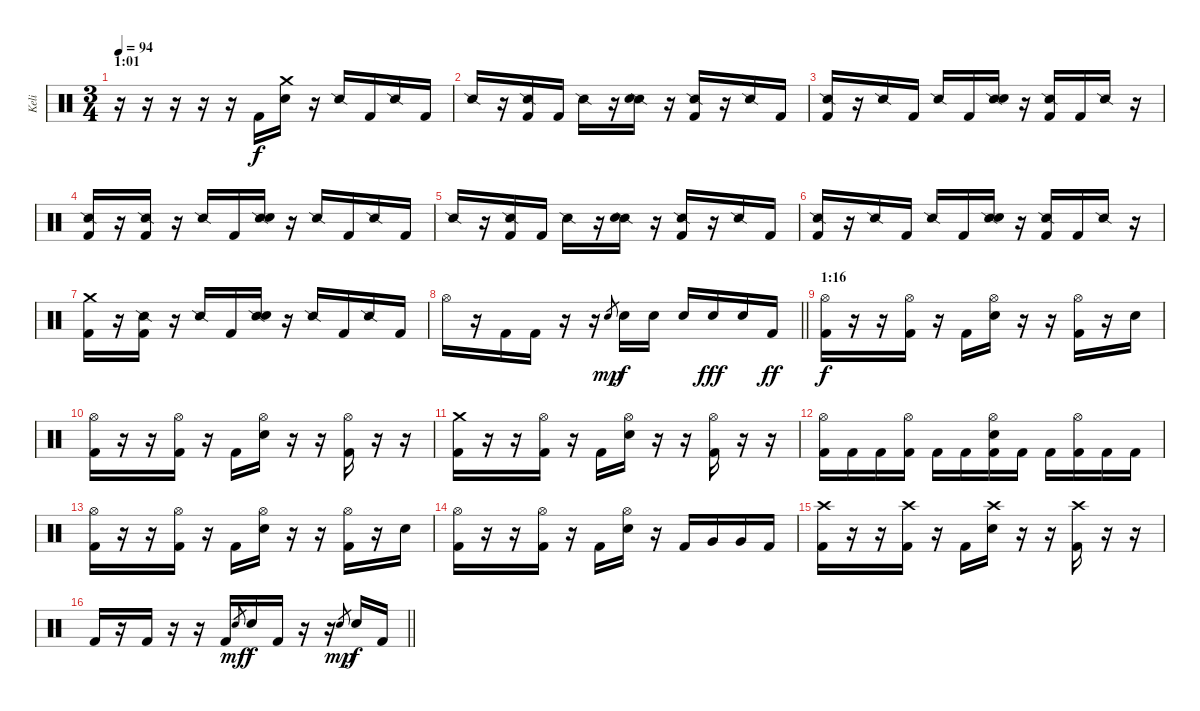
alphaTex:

\track ("Keli" "Keli") {instrument percussion}
\staff {score}
\articulation defaults
\ts (3 4)
\section ("" "1:01")
\tempo 94
\clef neutral
\ks c
r.16{dy f} r.16 r.16 r.16 r.16 "Kick (hit) 2".16 ("Crash medium (hit)" "Snare (hit) 2").16 r.16 "Snare (side stick) 2".16 "Kick (hit) 2".16 "Snare (side stick) 2".16 "Kick (hit) 2".16 |
"Snare (side stick) 2".16 r.16 ("Snare (side stick) 2" "Kick (hit) 2").16 "Kick (hit) 2".16 "Snare (side stick) 2".16 r.16 ("Snare (side stick) 2" "Snare (hit) 2").16 r.16 ("Snare (side stick) 2" "Kick (hit) 2").16 r.16 "Snare (side stick) 2".16 "Kick (hit) 2".16 |
("Snare (side stick) 2" "Kick (hit) 2").16 r.16 "Snare (side stick) 2".16 "Kick (hit) 2".16 "Snare (side stick) 2".16 "Kick (hit) 2".16 ("Snare (side stick) 2" "Snare (hit) 2").16 r.16 ("Snare (side stick) 2" "Kick (hit) 2").16 "Kick (hit) 2".16 "Snare (side stick) 2".16 r.16 |
("Snare (side stick) 2" "Kick (hit) 2").16 r.16 ("Snare (side stick) 2" "Kick (hit) 2").16 r.16 "Snare (side stick) 2".16 "Kick (hit) 2".16 ("Snare (side stick) 2" "Snare (hit) 2").16 r.16 "Snare (side stick) 2".16 "Kick (hit) 2".16 "Snare (side stick) 2".16 "Kick (hit) 2".16 |
"Snare (side stick) 2".16 r.16 ("Snare (side stick) 2" "Kick (hit) 2").16 "Kick (hit) 2".16 "Snare (side stick) 2".16 r.16 ("Snare (side stick) 2" "Snare (hit) 2").16 r.16 ("Snare (side stick) 2" "Kick (hit) 2").16 r.16 "Snare (side stick) 2".16 "Kick (hit) 2".16 |
("Snare (side stick) 2" "Kick (hit) 2").16 r.16 "Snare (side stick) 2".16 "Kick (hit) 2".16 "Snare (side stick) 2".16 "Kick (hit) 2".16 ("Snare (side stick) 2" "Snare (hit) 2").16 r.16 ("Snare (side stick) 2" "Kick (hit) 2").16 "Kick (hit) 2".16 "Snare (side stick) 2".16 r.16 |
("Crash medium (hit)" "Kick (hit) 2").16 r.16 ("Snare (side stick) 2" "Kick (hit) 2").16 r.16 "Snare (side stick) 2".16 "Kick (hit) 2".16 ("Snare (side stick) 2" "Snare (hit) 2").16 r.16 "Snare (side stick) 2".16 "Kick (hit) 2".16 "Snare (side stick) 2".16 "Kick (hit) 2".16 |
\barLineRight lightlight "Hi-Hat (open)".16
r.16 "Kick (hit) 2".16 "Kick (hit) 2".16 r.16 r.16 "Snare (hit) 2".8{gr dy mp} "Snare (hit) 2".16{dy f} "Snare (hit) 2".16 "Snare (hit) 2".16 "Snare (hit) 2".16{dy fff} "Snare (hit) 2".16 "Kick (hit) 2".16{dy ff} |
\section ("" "1:16")
("Hi-Hat (open)" "Kick (hit) 2").16{dy f} r.16 r.16 ("Hi-Hat (open)" "Kick (hit) 2").16 r.16 "Kick (hit) 2".16 ("Hi-Hat (open)" "Snare (hit) 2").16 r.16 r.16 ("Hi-Hat (open)" "Kick (hit) 2").16 r.16 "Snare (hit) 2".16 |
("Hi-Hat (open)" "Kick (hit) 2").16 r.16 r.16 ("Hi-Hat (open)" "Kick (hit) 2").16 r.16 "Kick (hit) 2".16 ("Hi-Hat (open)" "Snare (hit) 2").16 r.16 r.16 ("Hi-Hat (open)" "Kick (hit) 2").16 r.16 r.16 |
("Crash medium (hit)" "Kick (hit) 2").16 r.16 r.16 ("Hi-Hat (open)" "Kick (hit) 2").16 r.16 "Kick (hit) 2".16 ("Hi-Hat (open)" "Snare (hit) 2").16 r.16 r.16 ("Hi-Hat (open)" "Kick (hit) 2").16 r.16 r.16 |
("Hi-Hat (open)" "Kick (hit) 2").16 "Kick (hit) 2".16 "Kick (hit) 2".16 ("Hi-Hat (open)" "Kick (hit) 2").16 "Kick (hit) 2".16 "Kick (hit) 2".16 ("Hi-Hat (open)" "Snare (hit) 2" "Kick (hit) 2").16 "Kick (hit) 2".16 "Kick (hit) 2".16 ("Hi-Hat (open)" "Kick (hit) 2").16 "Kick (hit) 2".16 "Kick (hit) 2".16 |
("Hi-Hat (open)" "Kick (hit) 2").16 r.16 r.16 ("Hi-Hat (open)" "Kick (hit) 2").16 r.16 "Kick (hit) 2".16 ("Hi-Hat (open)" "Snare (hit) 2").16 r.16 r.16 ("Hi-Hat (open)" "Kick (hit) 2").16 r.16 "Snare (hit) 2".16 |
("Hi-Hat (open)" "Kick (hit) 2").16 r.16 r.16 ("Hi-Hat (open)" "Kick (hit) 2").16 r.16 "Kick (hit) 2".16 ("Hi-Hat (open)" "Snare (hit) 2").16 r.16 "Kick (hit) 2".16 "Very Low Tom (hit)".16 "Very Low Tom (hit)".16 "Kick (hit) 2".16 |
("Crash high (hit)" "Kick (hit) 2").16 r.16 r.16 ("Crash high (hit)" "Kick (hit) 2").16 r.16 "Kick (hit) 2".16 ("Crash high (hit)" "Snare (hit) 2").16 r.16 r.16 ("Crash high (hit)" "Kick (hit) 2").16 r.16 r.16 |
\barLineRight lightlight "Kick (hit) 2".16
r.16 "Kick (hit) 2".16 r.16 r.16 "Kick (hit) 2".16 "Snare (hit) 2".8{gr dy mf} "Snare (hit) 2".16{dy f} "Kick (hit) 2".16 r.16 r.16 "Snare (hit) 2".8{gr dy mp} "Snare (hit) 2".16{dy f} "Kick (hit) 2".16
